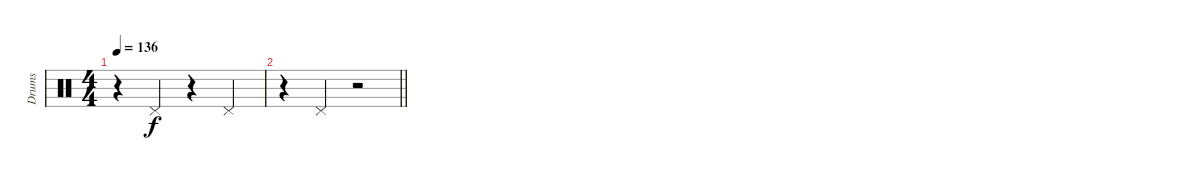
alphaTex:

\track ("Drums" "Drums") {instrument percussion}
\staff {score}
\articulation defaults
\ts (4 4)
\tempo 136
\clef neutral
\ks c
r.4{dy f} "Pedal Hi-Hat (hit)".4 r.4 "Pedal Hi-Hat (hit)".4 |
\barLineRight lightlight
r.4 "Pedal Hi-Hat (hit)".4 r.2
